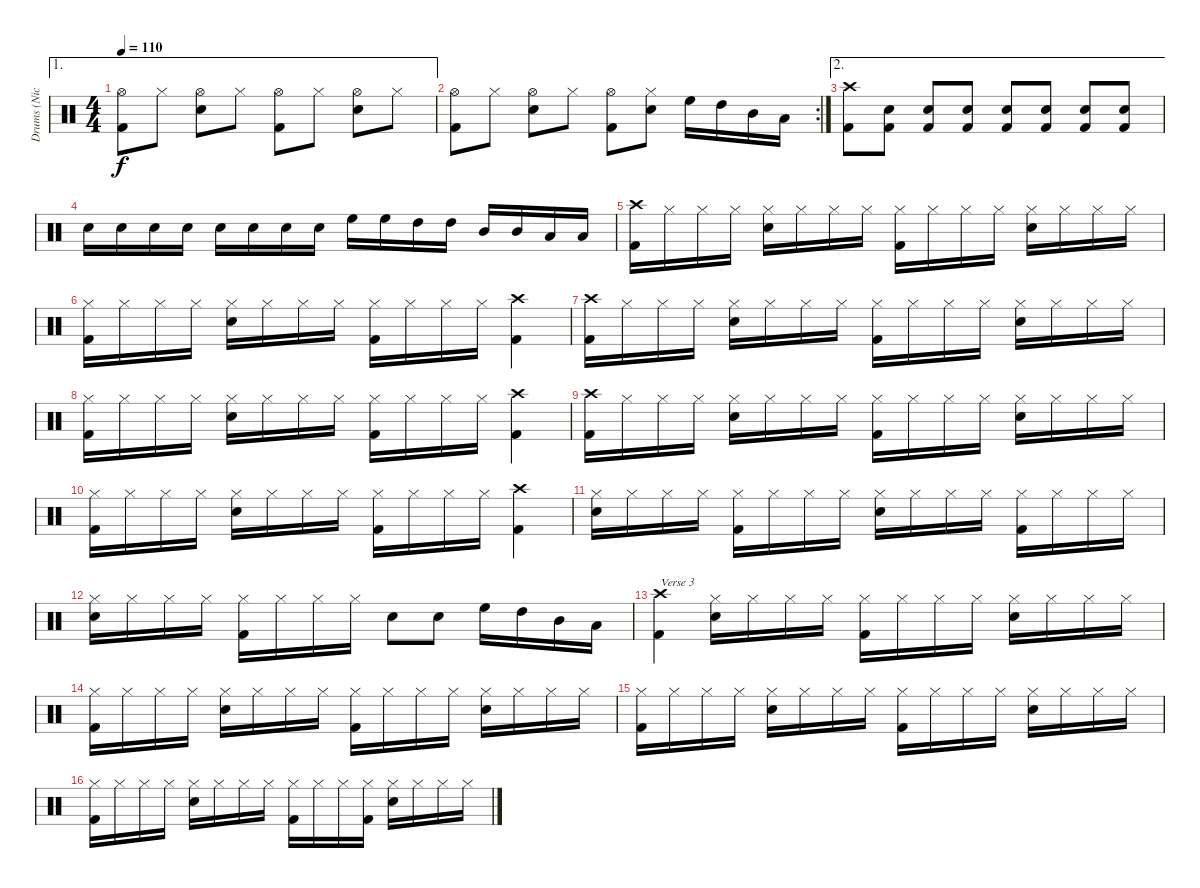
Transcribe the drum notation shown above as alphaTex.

\track ("Drums (Nicko)" "Drums (Nic") {instrument percussion}
\staff {score}
\articulation defaults
\ae 1
\ts (4 4)
\tempo 110
\clef neutral
\ks c
("Hi-Hat (open)" "Kick (hit) 2").8{dy f} "Hi-Hat (closed)".8 ("Hi-Hat (open)" "Snare (hit) 2").8 "Hi-Hat (closed)".8 ("Hi-Hat (open)" "Kick (hit) 2").8 "Hi-Hat (closed)".8 ("Hi-Hat (open)" "Snare (hit) 2").8 "Hi-Hat (closed)".8 |
\rc 2
("Hi-Hat (open)" "Kick (hit) 2").8 "Hi-Hat (closed)".8 ("Hi-Hat (open)" "Snare (hit) 2").8 "Hi-Hat (closed)".8 ("Hi-Hat (open)" "Kick (hit) 2").8 ("Hi-Hat (closed)" "Snare (hit) 2").8 "High Floor Tom (hit)".16 "High Tom (hit)".16 "Mid Tom (hit)".16 "Low Tom (hit)".16 |
\ae 2
("Crash high (hit)" "Kick (hit) 2").8 ("Kick (hit) 2" "Snare (hit) 2").8 ("Kick (hit) 2" "Snare (hit) 2").8 ("Kick (hit) 2" "Snare (hit) 2").8 ("Kick (hit) 2" "Snare (hit) 2").8 ("Kick (hit) 2" "Snare (hit) 2").8 ("Kick (hit) 2" "Snare (hit) 2").8 ("Kick (hit) 2" "Snare (hit) 2").8 |
"Snare (hit) 2".16 "Snare (hit) 2".16 "Snare (hit) 2".16 "Snare (hit) 2".16 "Snare (hit) 2".16 "Snare (hit) 2".16 "Snare (hit) 2".16 "Snare (hit) 2".16 "High Floor Tom (hit)".16 "High Floor Tom (hit)".16 "High Tom (hit)".16 "High Tom (hit)".16 "Mid Tom (hit)".16 "Mid Tom (hit)".16 "Low Tom (hit)".16 "Low Tom (hit)".16 |
("Crash high (hit)" "Kick (hit) 2").16 "Hi-Hat (closed)".16 "Hi-Hat (closed)".16 "Hi-Hat (closed)".16 ("Hi-Hat (closed)" "Snare (hit) 2").16 "Hi-Hat (closed)".16 "Hi-Hat (closed)".16 "Hi-Hat (closed)".16 ("Hi-Hat (closed)" "Kick (hit) 2").16 "Hi-Hat (closed)".16 "Hi-Hat (closed)".16 "Hi-Hat (closed)".16 ("Hi-Hat (closed)" "Snare (hit) 2").16 "Hi-Hat (closed)".16 "Hi-Hat (closed)".16 "Hi-Hat (closed)".16 |
("Hi-Hat (closed)" "Kick (hit) 2").16 "Hi-Hat (closed)".16 "Hi-Hat (closed)".16 "Hi-Hat (closed)".16 ("Hi-Hat (closed)" "Snare (hit) 2").16 "Hi-Hat (closed)".16 "Hi-Hat (closed)".16 "Hi-Hat (closed)".16 ("Hi-Hat (closed)" "Kick (hit) 2").16 "Hi-Hat (closed)".16 "Hi-Hat (closed)".16 "Hi-Hat (closed)".16 ("Crash high (hit)" "Kick (hit) 2").4 |
("Crash high (hit)" "Kick (hit) 2").16 "Hi-Hat (closed)".16 "Hi-Hat (closed)".16 "Hi-Hat (closed)".16 ("Hi-Hat (closed)" "Snare (hit) 2").16 "Hi-Hat (closed)".16 "Hi-Hat (closed)".16 "Hi-Hat (closed)".16 ("Hi-Hat (closed)" "Kick (hit) 2").16 "Hi-Hat (closed)".16 "Hi-Hat (closed)".16 "Hi-Hat (closed)".16 ("Hi-Hat (closed)" "Snare (hit) 2").16 "Hi-Hat (closed)".16 "Hi-Hat (closed)".16 "Hi-Hat (closed)".16 |
("Hi-Hat (closed)" "Kick (hit) 2").16 "Hi-Hat (closed)".16 "Hi-Hat (closed)".16 "Hi-Hat (closed)".16 ("Hi-Hat (closed)" "Snare (hit) 2").16 "Hi-Hat (closed)".16 "Hi-Hat (closed)".16 "Hi-Hat (closed)".16 ("Hi-Hat (closed)" "Kick (hit) 2").16 "Hi-Hat (closed)".16 "Hi-Hat (closed)".16 "Hi-Hat (closed)".16 ("Crash high (hit)" "Kick (hit) 2").4 |
("Crash high (hit)" "Kick (hit) 2").16 "Hi-Hat (closed)".16 "Hi-Hat (closed)".16 "Hi-Hat (closed)".16 ("Hi-Hat (closed)" "Snare (hit) 2").16 "Hi-Hat (closed)".16 "Hi-Hat (closed)".16 "Hi-Hat (closed)".16 ("Hi-Hat (closed)" "Kick (hit) 2").16 "Hi-Hat (closed)".16 "Hi-Hat (closed)".16 "Hi-Hat (closed)".16 ("Hi-Hat (closed)" "Snare (hit) 2").16 "Hi-Hat (closed)".16 "Hi-Hat (closed)".16 "Hi-Hat (closed)".16 |
("Hi-Hat (closed)" "Kick (hit) 2").16 "Hi-Hat (closed)".16 "Hi-Hat (closed)".16 "Hi-Hat (closed)".16 ("Hi-Hat (closed)" "Snare (hit) 2").16 "Hi-Hat (closed)".16 "Hi-Hat (closed)".16 "Hi-Hat (closed)".16 ("Hi-Hat (closed)" "Kick (hit) 2").16 "Hi-Hat (closed)".16 "Hi-Hat (closed)".16 "Hi-Hat (closed)".16 ("Crash high (hit)" "Kick (hit) 2").4 |
("Hi-Hat (closed)" "Snare (hit) 2").16 "Hi-Hat (closed)".16 "Hi-Hat (closed)".16 "Hi-Hat (closed)".16 ("Hi-Hat (closed)" "Kick (hit) 2").16 "Hi-Hat (closed)".16 "Hi-Hat (closed)".16 "Hi-Hat (closed)".16 ("Hi-Hat (closed)" "Snare (hit) 2").16 "Hi-Hat (closed)".16 "Hi-Hat (closed)".16 "Hi-Hat (closed)".16 ("Hi-Hat (closed)" "Kick (hit) 2").16 "Hi-Hat (closed)".16 "Hi-Hat (closed)".16 "Hi-Hat (closed)".16 |
("Hi-Hat (closed)" "Snare (hit) 2").16 "Hi-Hat (closed)".16 "Hi-Hat (closed)".16 "Hi-Hat (closed)".16 ("Hi-Hat (closed)" "Kick (hit) 2").16 "Hi-Hat (closed)".16 "Hi-Hat (closed)".16 "Hi-Hat (closed)".16 "Snare (hit) 2".8 "Snare (hit) 2".8 "High Floor Tom (hit)".16 "High Tom (hit)".16 "Mid Tom (hit)".16 "Low Tom (hit)".16 |
("Crash high (hit)" "Kick (hit) 2").4{txt "Verse 3"} ("Hi-Hat (closed)" "Snare (hit) 2").16 "Hi-Hat (closed)".16 "Hi-Hat (closed)".16 "Hi-Hat (closed)".16 ("Hi-Hat (closed)" "Kick (hit) 2").16 "Hi-Hat (closed)".16 "Hi-Hat (closed)".16 "Hi-Hat (closed)".16 ("Hi-Hat (closed)" "Snare (hit) 2").16 "Hi-Hat (closed)".16 "Hi-Hat (closed)".16 "Hi-Hat (closed)".16 |
("Hi-Hat (closed)" "Kick (hit) 2").16 "Hi-Hat (closed)".16 "Hi-Hat (closed)".16 "Hi-Hat (closed)".16 ("Hi-Hat (closed)" "Snare (hit) 2").16 "Hi-Hat (closed)".16 "Hi-Hat (closed)".16 "Hi-Hat (closed)".16 ("Hi-Hat (closed)" "Kick (hit) 2").16 "Hi-Hat (closed)".16 "Hi-Hat (closed)".16 "Hi-Hat (closed)".16 ("Hi-Hat (closed)" "Snare (hit) 2").16 "Hi-Hat (closed)".16 "Hi-Hat (closed)".16 "Hi-Hat (closed)".16 |
("Hi-Hat (closed)" "Kick (hit) 2").16 "Hi-Hat (closed)".16 "Hi-Hat (closed)".16 "Hi-Hat (closed)".16 ("Hi-Hat (closed)" "Snare (hit) 2").16 "Hi-Hat (closed)".16 "Hi-Hat (closed)".16 "Hi-Hat (closed)".16 ("Hi-Hat (closed)" "Kick (hit) 2").16 "Hi-Hat (closed)".16 "Hi-Hat (closed)".16 "Hi-Hat (closed)".16 ("Hi-Hat (closed)" "Snare (hit) 2").16 "Hi-Hat (closed)".16 "Hi-Hat (closed)".16 "Hi-Hat (closed)".16 |
("Hi-Hat (closed)" "Kick (hit) 2").16 "Hi-Hat (closed)".16 "Hi-Hat (closed)".16 "Hi-Hat (closed)".16 ("Hi-Hat (closed)" "Snare (hit) 2").16 "Hi-Hat (closed)".16 "Hi-Hat (closed)".16 "Hi-Hat (closed)".16 ("Hi-Hat (closed)" "Kick (hit) 2").16 "Hi-Hat (closed)".16 "Hi-Hat (closed)".16 ("Hi-Hat (closed)" "Kick (hit) 2").16 ("Hi-Hat (closed)" "Snare (hit) 2").16 "Hi-Hat (closed)".16 "Hi-Hat (closed)".16 "Hi-Hat (closed)".16
